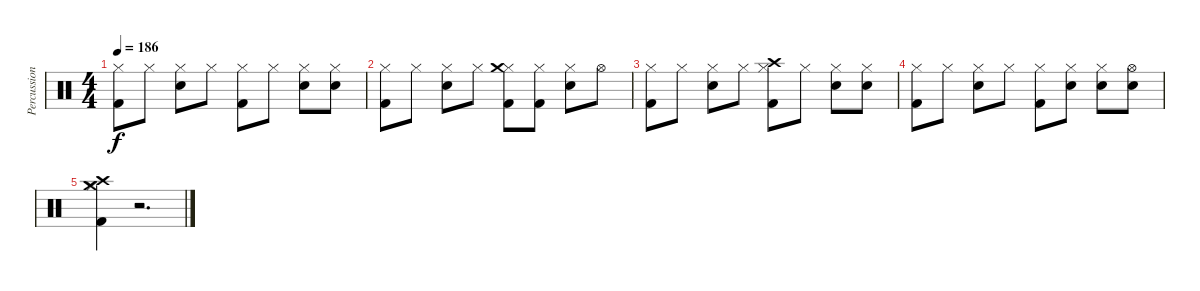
\track ("Percussions" "Percussion") {instrument percussion}
\staff {score}
\articulation defaults
\ts (4 4)
\tempo 186
\clef neutral
\ks c
("Hi-Hat (closed)" "Kick (hit) 2").8{dy f} "Hi-Hat (closed)".8 ("Hi-Hat (closed)" "Electric Snare (hit)").8 "Hi-Hat (closed)".8 ("Hi-Hat (closed)" "Kick (hit) 2").8 "Hi-Hat (closed)".8 ("Hi-Hat (closed)" "Electric Snare (hit)").8 ("Hi-Hat (closed)" "Electric Snare (hit)").8 |
("Hi-Hat (closed)" "Kick (hit) 2").8 "Hi-Hat (closed)".8 ("Hi-Hat (closed)" "Electric Snare (hit)").8 "Hi-Hat (closed)".8 ("Hi-Hat (closed)" "Crash medium (hit)" "Kick (hit) 2").8 ("Hi-Hat (closed)" "Kick (hit) 2").8 ("Hi-Hat (closed)" "Electric Snare (hit)").8 "Hi-Hat (open)".8 |
("Hi-Hat (closed)" "Kick (hit) 2").8 "Hi-Hat (closed)".8 ("Hi-Hat (closed)" "Electric Snare (hit)").8 "Hi-Hat (closed)".8 ("Hi-Hat (closed)" "Crash high (hit)" "Kick (hit) 2").8 "Hi-Hat (closed)".8 ("Hi-Hat (closed)" "Electric Snare (hit)").8 ("Hi-Hat (closed)" "Electric Snare (hit)").8 |
("Hi-Hat (closed)" "Kick (hit) 2").8 "Hi-Hat (closed)".8 ("Hi-Hat (closed)" "Electric Snare (hit)").8 "Hi-Hat (closed)".8 ("Hi-Hat (closed)" "Kick (hit) 2").8 ("Hi-Hat (closed)" "Electric Snare (hit)").8 ("Hi-Hat (closed)" "Electric Snare (hit)").8 ("Hi-Hat (open)" "Electric Snare (hit)").8 |
("Hi-Hat (closed)" "Crash high (hit)" "Crash medium (hit)" "Kick (hit) 2").4 r.2{d}
